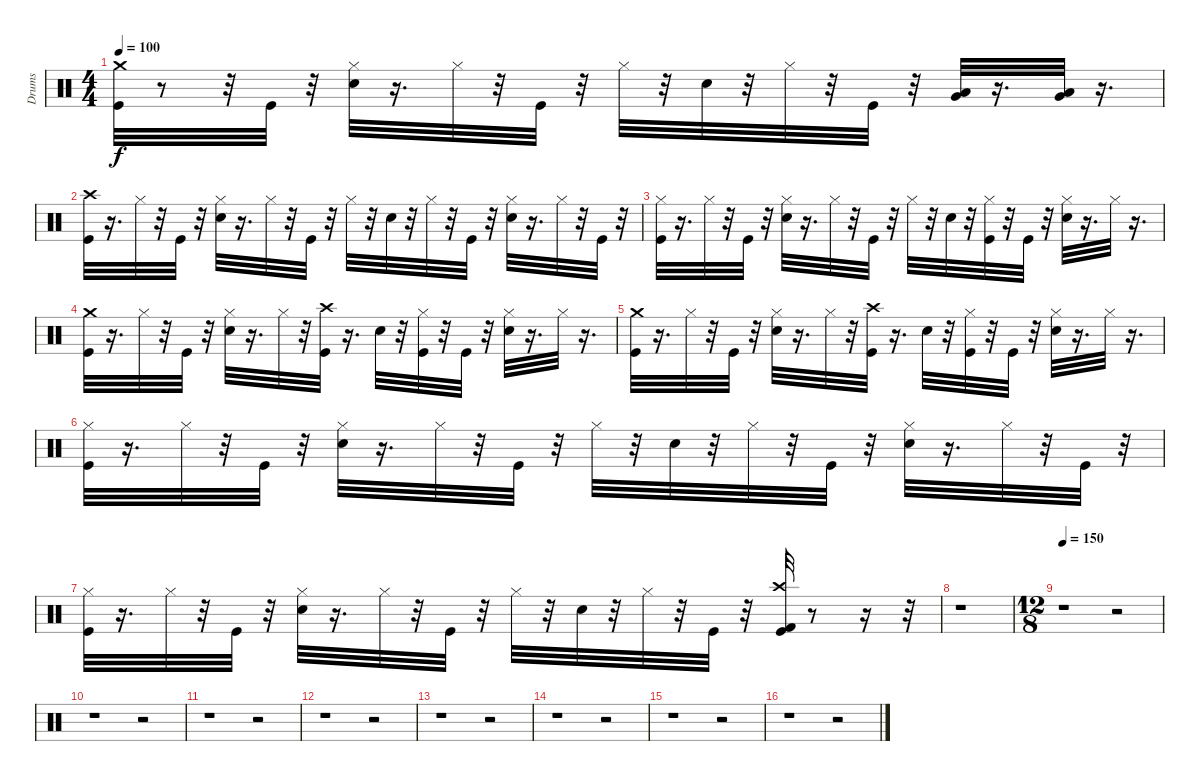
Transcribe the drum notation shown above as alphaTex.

\track ("Drums" "Drums") {instrument percussion}
\staff {score}
\articulation defaults
\ts (4 4)
\tempo 100
\clef neutral
\ks c
("Kick (hit)" "Crash medium (hit)").32{dy f} r.8 r.32 "Kick (hit)".32 r.32 ("Hi-Hat (closed)" "Snare (hit) 2").32 r.16{d} "Hi-Hat (closed)".32 r.32 "Kick (hit)".32 r.32 "Hi-Hat (closed)".32 r.32 "Snare (hit) 2".32 r.32 "Hi-Hat (closed)".32 r.32 "Kick (hit)".32 r.32 ("Low Tom (hit)" "Very Low Tom (hit)").32 r.16{d} ("Very Low Tom (hit)" "Low Floor Tom (hit)").32 r.16{d} |
("Kick (hit)" "Crash high (hit)").32 r.16{d} "Hi-Hat (closed)".32 r.32 "Kick (hit)".32 r.32 ("Snare (hit) 2" "Hi-Hat (closed)").32 r.16{d} "Hi-Hat (closed)".32 r.32 "Kick (hit)".32 r.32 "Hi-Hat (closed)".32 r.32 "Snare (hit) 2".32 r.32 "Hi-Hat (closed)".32 r.32 "Kick (hit)".32 r.32 ("Snare (hit) 2" "Hi-Hat (closed)").32 r.16{d} "Hi-Hat (closed)".32 r.32 "Kick (hit)".32 r.32 |
("Hi-Hat (closed)" "Kick (hit)").32 r.16{d} "Hi-Hat (closed)".32 r.32 "Kick (hit)".32 r.32 ("Hi-Hat (closed)" "Snare (hit) 2").32 r.16{d} "Hi-Hat (closed)".32 r.32 "Kick (hit)".32 r.32 "Hi-Hat (closed)".32 r.32 "Snare (hit) 2".32 r.32 ("Hi-Hat (closed)" "Kick (hit)").32 r.32 "Kick (hit)".32 r.32 ("Hi-Hat (closed)" "Snare (hit) 2").32 r.16{d} "Hi-Hat (closed)".32 r.16{d} |
("Crash medium (hit)" "Kick (hit)").32 r.16{d} "Hi-Hat (closed)".32 r.32 "Kick (hit)".32 r.32 ("Hi-Hat (closed)" "Snare (hit) 2").32 r.16{d} "Hi-Hat (closed)".32 r.32 ("Crash high (hit)" "Kick (hit)").32 r.16{d} "Snare (hit) 2".32 r.32 ("Hi-Hat (closed)" "Kick (hit)").32 r.32 "Kick (hit)".32 r.32 ("Hi-Hat (closed)" "Snare (hit) 2").32 r.16{d} "Hi-Hat (closed)".32 r.16{d} |
("Crash medium (hit)" "Kick (hit)").32 r.16{d} "Hi-Hat (closed)".32 r.32 "Kick (hit)".32 r.32 ("Hi-Hat (closed)" "Snare (hit) 2").32 r.16{d} "Hi-Hat (closed)".32 r.32 ("Crash high (hit)" "Kick (hit)").32 r.16{d} "Snare (hit) 2".32 r.32 ("Hi-Hat (closed)" "Kick (hit)").32 r.32 "Kick (hit)".32 r.32 ("Hi-Hat (closed)" "Snare (hit) 2").32 r.16{d} "Hi-Hat (closed)".32 r.16{d} |
("Hi-Hat (closed)" "Kick (hit)").32 r.16{d} "Hi-Hat (closed)".32 r.32 "Kick (hit)".32 r.32 ("Hi-Hat (closed)" "Snare (hit) 2").32 r.16{d} "Hi-Hat (closed)".32 r.32 "Kick (hit)".32 r.32 "Hi-Hat (closed)".32 r.32 "Snare (hit) 2".32 r.32 "Hi-Hat (closed)".32 r.32 "Kick (hit)".32 r.32 ("Hi-Hat (closed)" "Snare (hit) 2").32 r.16{d} "Hi-Hat (closed)".32 r.32 "Kick (hit)".32 r.32 |
("Hi-Hat (closed)" "Kick (hit)").32 r.16{d} "Hi-Hat (closed)".32 r.32 "Kick (hit)".32 r.32 ("Hi-Hat (closed)" "Snare (hit) 2").32 r.16{d} "Hi-Hat (closed)".32 r.32 "Kick (hit)".32 r.32 "Hi-Hat (closed)".32 r.32 "Snare (hit) 2".32 r.32 "Hi-Hat (closed)".32 r.32 "Kick (hit)".32 r.32 ("Crash high (hit)" "Kick (hit) 2" "Kick (hit)").32 r.8 r.16 r.32 |
r.1 |
\ts (12 8)
\tempo 150
r.1 r.2 |
r.1 r.2 |
r.1 r.2 |
r.1 r.2 |
r.1 r.2 |
r.1 r.2 |
r.1 r.2 |
r.1 r.2
